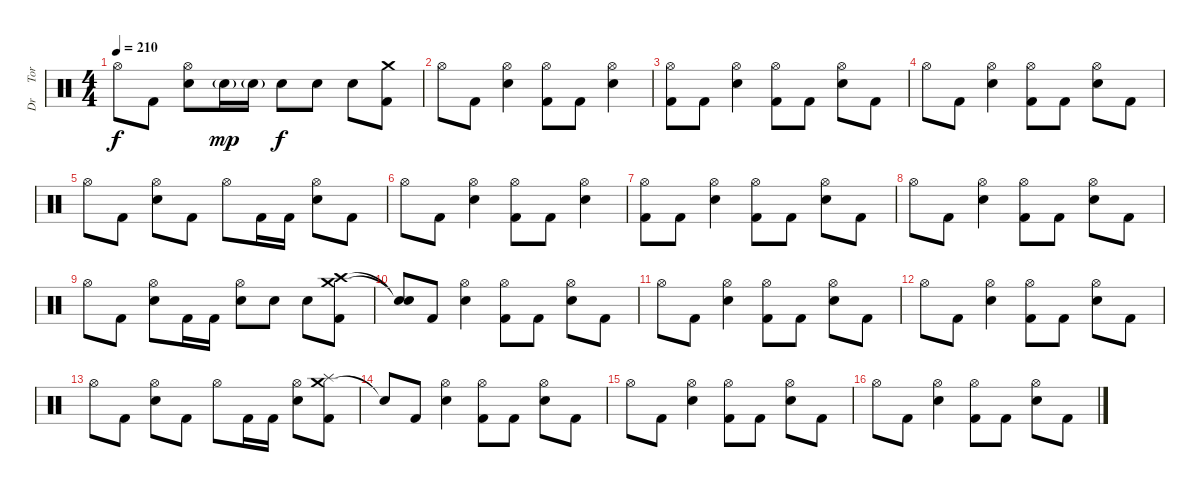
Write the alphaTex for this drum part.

\track ("Dr     Tora" "Dr     Tor") {instrument percussion}
\staff {score}
\articulation defaults
\ts (4 4)
\tempo 210
\clef neutral
\ks c "Hi-Hat (open)".8{dy f} "Kick (hit) 2".8
("Hi-Hat (open)" "Electric Snare (hit)").8 "Electric Snare (hit)"{g}.16{dy mp} "Electric Snare (hit)"{g}.16 "Electric Snare (hit)".8{dy f} "Electric Snare (hit)".8 "Electric Snare (hit)".8 ("Crash medium (hit)" "Kick (hit) 2").8 |
"Hi-Hat (open)".8 "Kick (hit) 2".8 ("Hi-Hat (open)" "Electric Snare (hit)").4 ("Hi-Hat (open)" "Kick (hit) 2").8 "Kick (hit) 2".8 ("Hi-Hat (open)" "Electric Snare (hit)").4 |
("Hi-Hat (open)" "Kick (hit) 2").8 "Kick (hit) 2".8 ("Hi-Hat (open)" "Electric Snare (hit)").4 ("Hi-Hat (open)" "Kick (hit) 2").8 "Kick (hit) 2".8 ("Hi-Hat (open)" "Electric Snare (hit)").8 "Kick (hit) 2".8 |
"Hi-Hat (open)".8 "Kick (hit) 2".8 ("Hi-Hat (open)" "Electric Snare (hit)").4 ("Hi-Hat (open)" "Kick (hit) 2").8 "Kick (hit) 2".8 ("Hi-Hat (open)" "Electric Snare (hit)").8 "Kick (hit) 2".8 |
"Hi-Hat (open)".8 "Kick (hit) 2".8 ("Hi-Hat (open)" "Electric Snare (hit)").8 "Kick (hit) 2".8 "Hi-Hat (open)".8 "Kick (hit) 2".16 "Kick (hit) 2".16 ("Hi-Hat (open)" "Electric Snare (hit)").8 "Kick (hit) 2".8 |
"Hi-Hat (open)".8 "Kick (hit) 2".8 ("Hi-Hat (open)" "Electric Snare (hit)").4 ("Hi-Hat (open)" "Kick (hit) 2").8 "Kick (hit) 2".8 ("Hi-Hat (open)" "Electric Snare (hit)").4 |
("Hi-Hat (open)" "Kick (hit) 2").8 "Kick (hit) 2".8 ("Hi-Hat (open)" "Electric Snare (hit)").4 ("Hi-Hat (open)" "Kick (hit) 2").8 "Kick (hit) 2".8 ("Hi-Hat (open)" "Electric Snare (hit)").8 "Kick (hit) 2".8 |
"Hi-Hat (open)".8 "Kick (hit) 2".8 ("Hi-Hat (open)" "Electric Snare (hit)").4 ("Hi-Hat (open)" "Kick (hit) 2").8 "Kick (hit) 2".8 ("Hi-Hat (open)" "Electric Snare (hit)").8 "Kick (hit) 2".8 |
"Hi-Hat (open)".8 "Kick (hit) 2".8 ("Hi-Hat (open)" "Electric Snare (hit)").8 "Kick (hit) 2".16 "Kick (hit) 2".16 ("Hi-Hat (open)" "Electric Snare (hit)").8 "Electric Snare (hit)".8 "Electric Snare (hit)".8 ("Crash medium (hit)" "Crash high (hit)" "Kick (hit) 2").8 |
("Snare (hit)"{t} "Snare (hit)"{t}).8 "Kick (hit) 2".8 ("Hi-Hat (open)" "Electric Snare (hit)").4 ("Hi-Hat (open)" "Kick (hit) 2").8 "Kick (hit) 2".8 ("Hi-Hat (open)" "Electric Snare (hit)").8 "Kick (hit) 2".8 |
"Hi-Hat (open)".8 "Kick (hit) 2".8 ("Hi-Hat (open)" "Electric Snare (hit)").4 ("Hi-Hat (open)" "Kick (hit) 2").8 "Kick (hit) 2".8 ("Hi-Hat (open)" "Electric Snare (hit)").8 "Kick (hit) 2".8 |
"Hi-Hat (open)".8 "Kick (hit) 2".8 ("Hi-Hat (open)" "Electric Snare (hit)").4 ("Hi-Hat (open)" "Kick (hit) 2").8 "Kick (hit) 2".8 ("Hi-Hat (open)" "Electric Snare (hit)").8 "Kick (hit) 2".8 |
"Hi-Hat (open)".8 "Kick (hit) 2".8 ("Hi-Hat (open)" "Electric Snare (hit)").8 "Kick (hit) 2".8 "Hi-Hat (open)".8 "Kick (hit) 2".16 "Kick (hit) 2".16 ("Hi-Hat (open)" "Electric Snare (hit)").8 ("Crash medium (hit)" "Splash (hit)" "Kick (hit) 2").8 |
"Snare (hit)"{t}.8 "Kick (hit) 2".8 ("Hi-Hat (open)" "Electric Snare (hit)").4 ("Hi-Hat (open)" "Kick (hit) 2").8 "Kick (hit) 2".8 ("Hi-Hat (open)" "Electric Snare (hit)").8 "Kick (hit) 2".8 |
"Hi-Hat (open)".8 "Kick (hit) 2".8 ("Hi-Hat (open)" "Electric Snare (hit)").4 ("Hi-Hat (open)" "Kick (hit) 2").8 "Kick (hit) 2".8 ("Hi-Hat (open)" "Electric Snare (hit)").8 "Kick (hit) 2".8 |
"Hi-Hat (open)".8 "Kick (hit) 2".8 ("Hi-Hat (open)" "Electric Snare (hit)").4 ("Hi-Hat (open)" "Kick (hit) 2").8 "Kick (hit) 2".8 ("Hi-Hat (open)" "Electric Snare (hit)").8 "Kick (hit) 2".8
